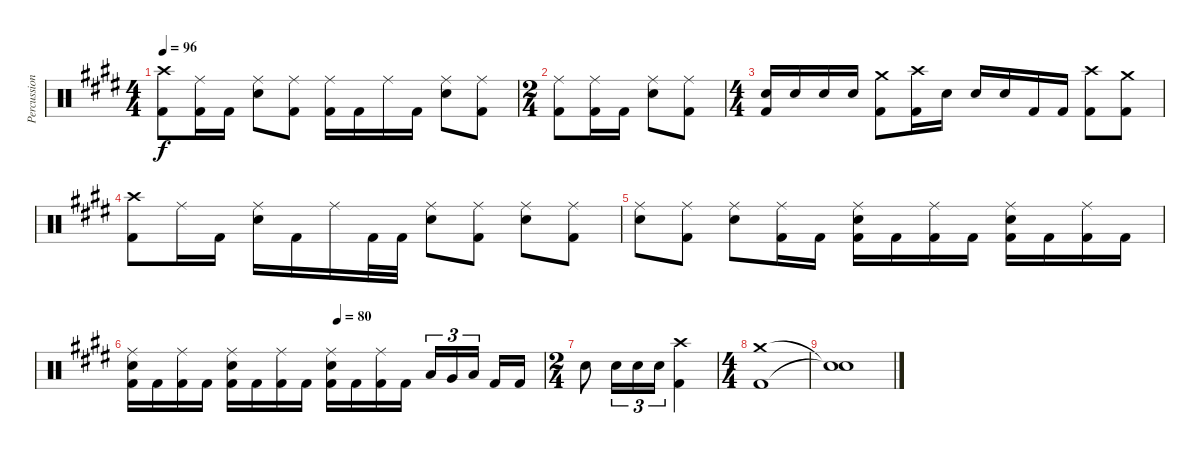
\track ("Percussion" "Percussion") {instrument percussion}
\staff {score}
\articulation defaults
\ts (4 4)
\tempo 96
\clef neutral
\ks e
("Crash high (hit)" "Kick (hit) 2").8{dy f} ("Ride (middle)" "Kick (hit) 2").16 "Kick (hit) 2".16 ("Ride (middle)" "Snare (hit) 2").8 ("Ride (middle)" "Kick (hit) 2").8 ("Ride (middle)" "Kick (hit) 2").16 "Kick (hit) 2".16 "Ride (middle)".16 "Kick (hit) 2".16 ("Ride (middle)" "Snare (hit) 2").8 ("Ride (middle)" "Kick (hit) 2").8 |
\ts (2 4)
("Ride (middle)" "Kick (hit) 2").8 ("Ride (middle)" "Kick (hit) 2").16 "Kick (hit) 2".16 ("Ride (middle)" "Snare (hit) 2").8 ("Ride (middle)" "Kick (hit) 2").8 |
\ts (4 4)
("Snare (hit) 2" "Kick (hit) 2").16 "Snare (hit) 2".16 "Snare (hit) 2".16 "Snare (hit) 2".16 ("Crash medium (hit)" "Kick (hit) 2").8 ("Crash high (hit)" "Kick (hit) 2").16 "Snare (hit) 2".16 "Snare (hit) 2".16 "Snare (hit) 2".16 "Kick (hit) 2".16 "Kick (hit) 2".16 ("Crash high (hit)" "Kick (hit) 2").8 ("Crash medium (hit)" "Kick (hit) 2").8 |
("Crash high (hit)" "Kick (hit) 2").8 "Ride (middle)".16 "Kick (hit) 2".16 ("Ride (middle)" "Snare (hit) 2").16 "Kick (hit) 2".16 "Ride (middle)".16 "Kick (hit) 2".32 "Kick (hit) 2".32 ("Ride (middle)" "Snare (hit) 2").8 ("Ride (middle)" "Kick (hit) 2").8 ("Ride (middle)" "Snare (hit) 2").8 ("Ride (middle)" "Kick (hit) 2").8 |
("Ride (middle)" "Snare (hit) 2").8 ("Ride (middle)" "Kick (hit) 2").8 ("Ride (middle)" "Snare (hit) 2").8 ("Ride (middle)" "Kick (hit) 2").16 "Kick (hit) 2".16 ("Ride (middle)" "Snare (hit) 2" "Kick (hit) 2").16 "Kick (hit) 2".16 ("Ride (middle)" "Kick (hit) 2").16 "Kick (hit) 2".16 ("Ride (middle)" "Snare (hit) 2" "Kick (hit) 2").16 "Kick (hit) 2".16 ("Ride (middle)" "Kick (hit) 2").16 "Kick (hit) 2".16 |
\tempo (80 0.5)
("Ride (middle)" "Snare (hit) 2" "Kick (hit) 2").16 "Kick (hit) 2".16 ("Ride (middle)" "Kick (hit) 2").16 "Kick (hit) 2".16 ("Ride (middle)" "Snare (hit) 2" "Kick (hit) 2").16 "Kick (hit) 2".16 ("Ride (middle)" "Kick (hit) 2").16 "Kick (hit) 2".16 ("Ride (middle)" "Snare (hit) 2" "Kick (hit) 2").16 "Kick (hit) 2".16 ("Ride (middle)" "Kick (hit) 2").16 "Kick (hit) 2".16 "Low Tom (hit)".16{tu (3 2)} "Very Low Tom (hit)".16{tu (3 2)} "Low Floor Tom (hit)".16{tu (3 2) beam splitsecondary} "Kick (hit) 2".16 "Kick (hit) 2".16 |
\ts (2 4)
"Snare (hit) 2".8 "Snare (hit) 2".16{tu (3 2)} "Snare (hit) 2".16{tu (3 2)} "Snare (hit) 2".16{tu (3 2)} ("Crash high (hit)" "Kick (hit) 2").4 |
\ts (4 4)
("Crash medium (hit)" "Kick (hit) 2").1 |
("Snare (hit)"{t} "Snare (hit)"{t}).1
